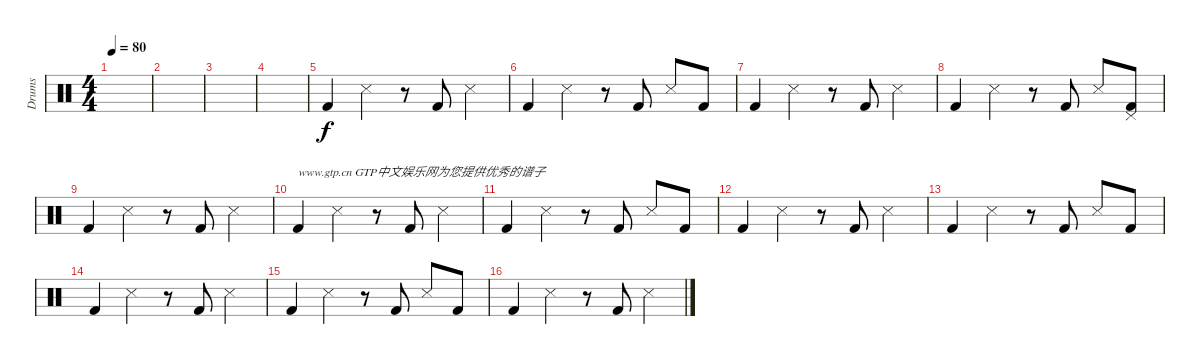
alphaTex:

\track ("Drums" "Drums") {instrument percussion}
\staff {score}
\articulation defaults
\ts (4 4)
\tempo 80
\clef neutral
\ks c
|
|
|
|
"Kick (hit) 2".4 "Snare (side stick) 3".4 r.8 "Kick (hit) 2".8 "Snare (side stick) 3".4 |
"Kick (hit) 2".4 "Snare (side stick) 3".4 r.8 "Kick (hit) 2".8 "Snare (side stick) 3".8 "Kick (hit) 2".8 |
"Kick (hit) 2".4 "Snare (side stick) 3".4 r.8 "Kick (hit) 2".8 "Snare (side stick) 3".4 |
"Kick (hit) 2".4 "Snare (side stick) 3".4 r.8 "Kick (hit) 2".8 "Snare (side stick) 3".8 ("Pedal Hi-Hat (hit)" "Kick (hit) 2").8 |
"Kick (hit) 2".4 "Snare (side stick) 3".4 r.8 "Kick (hit) 2".8 "Snare (side stick) 3".4 |
"Kick (hit) 2".4{txt "www.gtp.cn GTP中文娱乐网为您提供优秀的谱子"} "Snare (side stick) 3".4 r.8 "Kick (hit) 2".8 "Snare (side stick) 3".4 |
"Kick (hit) 2".4 "Snare (side stick) 3".4 r.8 "Kick (hit) 2".8 "Snare (side stick) 3".8 "Kick (hit) 2".8 |
"Kick (hit) 2".4 "Snare (side stick) 3".4 r.8 "Kick (hit) 2".8 "Snare (side stick) 3".4 |
"Kick (hit) 2".4 "Snare (side stick) 3".4 r.8 "Kick (hit) 2".8 "Snare (side stick) 3".8 "Kick (hit) 2".8 |
"Kick (hit) 2".4 "Snare (side stick) 3".4 r.8 "Kick (hit) 2".8 "Snare (side stick) 3".4 |
"Kick (hit) 2".4 "Snare (side stick) 3".4 r.8 "Kick (hit) 2".8 "Snare (side stick) 3".8 "Kick (hit) 2".8 |
"Kick (hit) 2".4 "Snare (side stick) 3".4 r.8 "Kick (hit) 2".8 "Snare (side stick) 3".4
